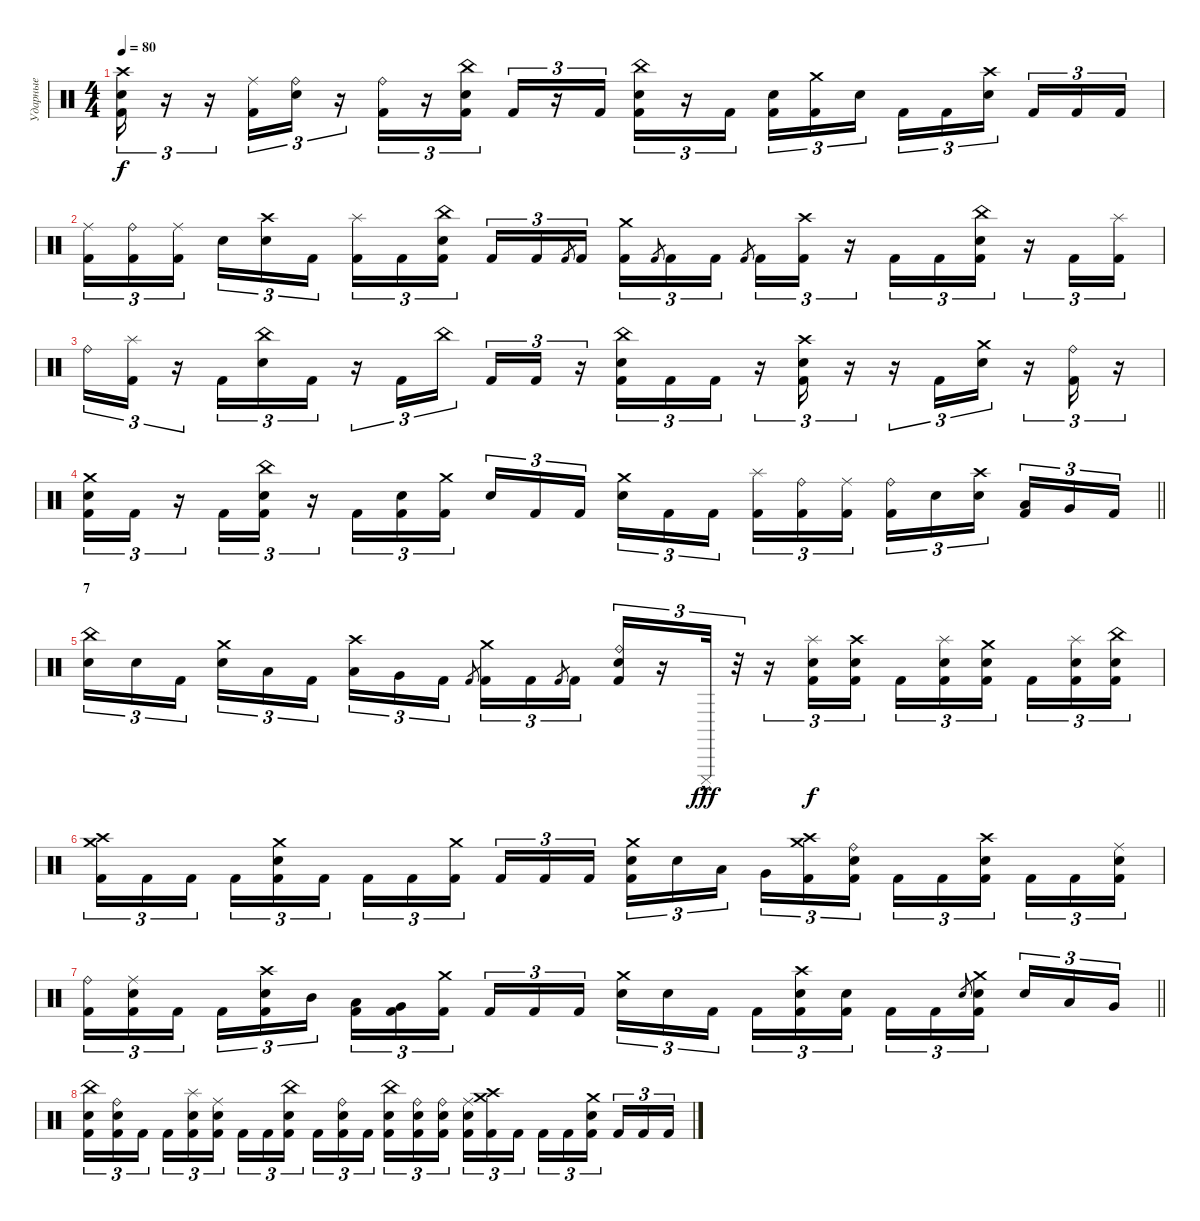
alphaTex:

\track ("Ударные" "Ударные") {instrument percussion}
\staff {score}
\articulation defaults
\ts (4 4)
\tempo 80
\clef neutral
\ks c
("Crash high (hit)" "Electric Snare (hit)" "Kick (hit) 2").16{tu (3 2) dy f} r.16{tu (3 2)} r.16{tu (3 2)} ("Ride (middle)" "Kick (hit) 2").16{tu (3 2)} ("Ride (bell)" "Electric Snare (hit)").16{tu (3 2)} r.16{tu (3 2)} ("Ride (bell)" "Kick (hit) 2").16{tu (3 2)} r.16{tu (3 2)} ("China (hit)" "Electric Snare (hit)" "Kick (hit) 2").16{tu (3 2)} "Kick (hit) 2".16{tu (3 2)} r.16{tu (3 2)} "Kick (hit) 2".16{tu (3 2)} ("China (hit)" "Electric Snare (hit)" "Kick (hit) 2").16{tu (3 2)} r.16{tu (3 2)} "Kick (hit) 2".16{tu (3 2) beam splitsecondary} ("Electric Snare (hit)" "Kick (hit) 2").16{tu (3 2)} ("Crash medium (hit)" "Kick (hit) 2").16{tu (3 2)} "Electric Snare (hit)".16{tu (3 2)} "Kick (hit) 2".16{tu (3 2)} "Kick (hit) 2".16{tu (3 2)} ("Crash high (hit)" "Electric Snare (hit)").16{tu (3 2) beam splitsecondary} "Kick (hit) 2".16{tu (3 2)} "Kick (hit) 2".16{tu (3 2)} "Kick (hit) 2".16{tu (3 2)} |
("Ride (middle)" "Kick (hit) 2").16{tu (3 2)} ("Ride (bell)" "Kick (hit) 2").16{tu (3 2)} ("Ride (middle)" "Kick (hit) 2").16{tu (3 2) beam splitsecondary} "Electric Snare (hit)".16{tu (3 2)} ("Crash high (hit)" "Electric Snare (hit)").16{tu (3 2)} "Kick (hit) 2".16{tu (3 2)} ("Splash (hit)" "Kick (hit) 2").16{tu (3 2)} "Kick (hit) 2".16{tu (3 2)} ("China (hit)" "Electric Snare (hit)" "Kick (hit) 2").16{tu (3 2) beam splitsecondary} "Kick (hit) 2".16{tu (3 2)} "Kick (hit) 2".16{tu (3 2)} "Kick (hit) 2".8{gr} "Kick (hit) 2".16{tu (3 2)} ("Crash medium (hit)" "Kick (hit) 2").16{tu (3 2)} "Kick (hit) 2".8{gr} "Kick (hit) 2".16{tu (3 2)} "Kick (hit) 2".16{tu (3 2)} "Kick (hit) 2".8{gr beam splitsecondary} "Kick (hit) 2".16{tu (3 2)} ("Crash high (hit)" "Kick (hit) 2").16{tu (3 2)} r.16{tu (3 2)} "Kick (hit) 2".16{tu (3 2)} "Kick (hit) 2".16{tu (3 2)} ("China (hit)" "Electric Snare (hit)" "Kick (hit) 2").16{tu (3 2)} r.16{tu (3 2)} "Kick (hit) 2".16{tu (3 2)} ("Splash (hit)" "Kick (hit) 2").16{tu (3 2)} |
"Ride (bell)".16{tu (3 2)} ("Splash (hit)" "Kick (hit) 2").16{tu (3 2)} r.16{tu (3 2)} "Kick (hit) 2".16{tu (3 2)} ("China (hit)" "Electric Snare (hit)").16{tu (3 2)} "Kick (hit) 2".16{tu (3 2)} r.16{tu (3 2)} "Kick (hit) 2".16{tu (3 2)} "China (hit)".16{tu (3 2) beam splitsecondary} "Kick (hit) 2".16{tu (3 2)} "Kick (hit) 2".16{tu (3 2)} r.16{tu (3 2)} ("China (hit)" "Electric Snare (hit)" "Kick (hit) 2").16{tu (3 2)} "Kick (hit) 2".16{tu (3 2)} "Kick (hit) 2".16{tu (3 2)} r.16{tu (3 2)} ("Crash high (hit)" "Electric Snare (hit)" "Kick (hit) 2").16{tu (3 2)} r.16{tu (3 2)} r.16{tu (3 2)} "Kick (hit) 2".16{tu (3 2)} ("Crash medium (hit)" "Electric Snare (hit)").16{tu (3 2)} r.16{tu (3 2)} ("Ride (bell)" "Kick (hit) 2").16{tu (3 2)} r.16{tu (3 2)} |
\barLineRight lightlight
("Crash medium (hit)" "Electric Snare (hit)" "Kick (hit) 2").16{tu (3 2)} "Kick (hit) 2".16{tu (3 2)} r.16{tu (3 2)} "Kick (hit) 2".16{tu (3 2)} ("China (hit)" "Electric Snare (hit)" "Kick (hit) 2").16{tu (3 2)} r.16{tu (3 2)} "Kick (hit) 2".16{tu (3 2)} ("Electric Snare (hit)" "Kick (hit) 2").16{tu (3 2)} ("Crash medium (hit)" "Kick (hit) 2").16{tu (3 2) beam splitsecondary} "Electric Snare (hit)".16{tu (3 2)} "Kick (hit) 2".16{tu (3 2)} "Kick (hit) 2".16{tu (3 2)} ("Crash medium (hit)" "Electric Snare (hit)").16{tu (3 2)} "Kick (hit) 2".16{tu (3 2)} "Kick (hit) 2".16{tu (3 2) beam splitsecondary} ("Splash (hit)" "Kick (hit) 2").16{tu (3 2)} ("Ride (bell)" "Kick (hit) 2").16{tu (3 2)} ("Ride (middle)" "Kick (hit) 2").16{tu (3 2)} ("Ride (bell)" "Kick (hit) 2").16{tu (3 2)} "Electric Snare (hit)".16{tu (3 2)} ("Crash high (hit)" "Electric Snare (hit)").16{tu (3 2) beam splitsecondary} ("Low Tom (hit)" "Kick (hit) 2").16{tu (3 2)} "Very Low Tom (hit)".16{tu (3 2)} "Kick (hit) 2".16{tu (3 2)} |
\section ("" "7")
("China (hit)" "Electric Snare (hit)").16{tu (3 2)} "Electric Snare (hit)".16{tu (3 2)} "Kick (hit) 2".16{tu (3 2) beam splitsecondary} ("Crash medium (hit)" "Electric Snare (hit)").16{tu (3 2)} "Low Tom (hit)".16{tu (3 2)} "Kick (hit) 2".16{tu (3 2)} ("Crash high (hit)" "Low Tom (hit)").16{tu (3 2)} "Very Low Tom (hit)".16{tu (3 2)} "Kick (hit) 2".16{tu (3 2)} "Kick (hit) 2".8{gr beam splitsecondary} ("Crash medium (hit)" "Kick (hit) 2").16{tu (3 2)} "Kick (hit) 2".16{tu (3 2)} "Kick (hit) 2".8{gr} "Kick (hit) 2".16{tu (3 2)} ("Ride (bell)" "Electric Snare (hit)" "Kick (hit) 2").16{tu (3 2)} r.16{tu (3 2)} "Cuica (mute)"{hac}.32{tu (3 2) dy fff} r.32{tu (3 2)} r.16{tu (3 2)} ("Splash (hit)" "Electric Snare (hit)" "Kick (hit) 2").16{tu (3 2) dy f} ("Crash high (hit)" "Electric Snare (hit)" "Kick (hit) 2").16{tu (3 2)} "Kick (hit) 2".16{tu (3 2)} ("Splash (hit)" "Electric Snare (hit)" "Kick (hit) 2").16{tu (3 2)} ("Crash medium (hit)" "Electric Snare (hit)" "Kick (hit) 2").16{tu (3 2) beam splitsecondary} "Kick (hit) 2".16{tu (3 2)} ("Splash (hit)" "Electric Snare (hit)" "Kick (hit) 2").16{tu (3 2)} ("China (hit)" "Electric Snare (hit)" "Kick (hit) 2").16{tu (3 2)} |
("Crash medium (hit)" "Crash high (hit)" "Kick (hit) 2").16{tu (3 2)} "Kick (hit) 2".16{tu (3 2)} "Kick (hit) 2".16{tu (3 2) beam splitsecondary} "Kick (hit) 2".16{tu (3 2)} ("Crash medium (hit)" "Electric Snare (hit)" "Kick (hit) 2").16{tu (3 2)} "Kick (hit) 2".16{tu (3 2)} "Kick (hit) 2".16{tu (3 2)} "Kick (hit) 2".16{tu (3 2)} ("Crash medium (hit)" "Kick (hit) 2").16{tu (3 2) beam splitsecondary} "Kick (hit) 2".16{tu (3 2)} "Kick (hit) 2".16{tu (3 2)} "Kick (hit) 2".16{tu (3 2)} ("Crash medium (hit)" "Electric Snare (hit)" "Kick (hit) 2").16{tu (3 2)} "Electric Snare (hit)".16{tu (3 2)} "Low Tom (hit)".16{tu (3 2) beam splitsecondary} "Very Low Tom (hit)".16{tu (3 2)} ("Crash high (hit)" "Crash medium (hit)" "Kick (hit) 2").16{tu (3 2)} ("Ride (bell)" "Electric Snare (hit)" "Kick (hit) 2").16{tu (3 2)} "Kick (hit) 2".16{tu (3 2)} "Kick (hit) 2".16{tu (3 2)} ("Crash high (hit)" "Electric Snare (hit)" "Kick (hit) 2").16{tu (3 2) beam splitsecondary} "Kick (hit) 2".16{tu (3 2)} "Kick (hit) 2".16{tu (3 2)} ("Ride (middle)" "Electric Snare (hit)" "Kick (hit) 2").16{tu (3 2)} |
\barLineRight lightlight
("Ride (bell)" "Kick (hit) 2").16{tu (3 2)} ("Ride (middle)" "Electric Snare (hit)" "Kick (hit) 2").16{tu (3 2)} "Kick (hit) 2".16{tu (3 2) beam splitsecondary} "Kick (hit) 2".16{tu (3 2)} ("Crash high (hit)" "Electric Snare (hit)" "Kick (hit) 2").16{tu (3 2)} "Mid Tom (hit)".16{tu (3 2)} ("Low Tom (hit)" "Kick (hit) 2").16{tu (3 2)} ("Very Low Tom (hit)" "Kick (hit) 2").16{tu (3 2)} ("Crash medium (hit)" "Kick (hit) 2").16{tu (3 2) beam splitsecondary} "Kick (hit) 2".16{tu (3 2)} "Kick (hit) 2".16{tu (3 2)} "Kick (hit) 2".16{tu (3 2)} ("Crash medium (hit)" "Electric Snare (hit)").16{tu (3 2)} "Electric Snare (hit)".16{tu (3 2)} "Kick (hit) 2".16{tu (3 2) beam splitsecondary} "Kick (hit) 2".16{tu (3 2)} ("Crash high (hit)" "Electric Snare (hit)" "Kick (hit) 2").16{tu (3 2)} ("Electric Snare (hit)" "Kick (hit) 2").16{tu (3 2)} "Kick (hit) 2".16{tu (3 2)} "Kick (hit) 2".16{tu (3 2)} "Electric Snare (hit)".8{gr} ("Crash medium (hit)" "Electric Snare (hit)" "Kick (hit) 2").16{tu (3 2) beam splitsecondary} "Electric Snare (hit)".16{tu (3 2)} "Low Tom (hit)".16{tu (3 2)} "Very Low Tom (hit)".16{tu (3 2)} |
("China (hit)" "Electric Snare (hit)" "Kick (hit) 2").16{tu (3 2)} ("Ride (bell)" "Electric Snare (hit)" "Kick (hit) 2").16{tu (3 2)} "Kick (hit) 2".16{tu (3 2) beam splitsecondary} "Kick (hit) 2".16{tu (3 2)} ("Splash (hit)" "Electric Snare (hit)" "Kick (hit) 2").16{tu (3 2)} ("Ride (middle)" "Electric Snare (hit)" "Kick (hit) 2").16{tu (3 2)} "Kick (hit) 2".16{tu (3 2)} "Kick (hit) 2".16{tu (3 2)} ("China (hit)" "Electric Snare (hit)" "Kick (hit) 2").16{tu (3 2) beam splitsecondary} "Kick (hit) 2".16{tu (3 2)} ("Ride (bell)" "Electric Snare (hit)" "Kick (hit) 2").16{tu (3 2)} "Kick (hit) 2".16{tu (3 2)} ("China (hit)" "Electric Snare (hit)" "Kick (hit) 2").16{tu (3 2)} ("Ride (bell)" "Electric Snare (hit)" "Kick (hit) 2").16{tu (3 2)} ("Ride (bell)" "Electric Snare (hit)" "Kick (hit) 2").16{tu (3 2) beam splitsecondary} ("Ride (middle)" "Electric Snare (hit)" "Kick (hit) 2").16{tu (3 2)} ("Crash medium (hit)" "Crash high (hit)" "Kick (hit) 2").16{tu (3 2)} "Kick (hit) 2".16{tu (3 2)} "Kick (hit) 2".16{tu (3 2)} "Kick (hit) 2".16{tu (3 2)} ("Crash medium (hit)" "Electric Snare (hit)" "Kick (hit) 2").16{tu (3 2) beam splitsecondary} "Kick (hit) 2".16{tu (3 2)} "Kick (hit) 2".16{tu (3 2)} "Kick (hit) 2".16{tu (3 2)}
